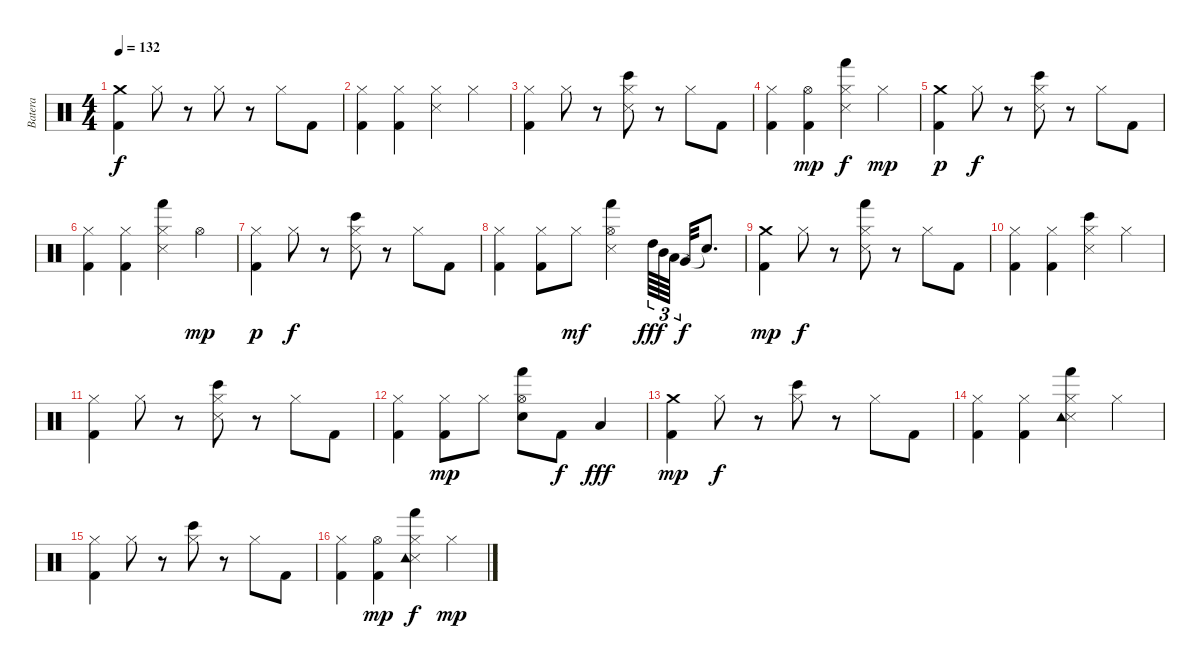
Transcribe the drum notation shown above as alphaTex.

\track ("Batera" "Batera") {instrument percussion}
\staff {score}
\articulation defaults
\ts (4 4)
\tempo 132
\clef neutral
\ks c
("Crash medium (hit)" "Kick (hit) 2").4{dy f} "Hi-Hat (closed)".8 r.8 "Hi-Hat (closed)".8 r.8 "Hi-Hat (closed)".8 "Kick (hit) 2".8 |
("Hi-Hat (closed)" "Kick (hit) 2").4 ("Hi-Hat (closed)" "Kick (hit) 2").4 ("Hi-Hat (closed)" "Snare (side stick) 3").4 "Hi-Hat (closed)".4 |
("Hi-Hat (closed)" "Kick (hit) 2").4 "Hi-Hat (closed)".8 r.8 ("Hi-Hat (closed)" "Bongo High (hit)" "Snare (side stick) 3").8 r.8 "Hi-Hat (closed)".8 "Kick (hit) 2".8 |
("Hi-Hat (closed)" "Kick (hit) 2").4 ("Hi-Hat (open)" "Kick (hit) 2").4{dy mp} ("Hi-Hat (closed)" "Hand (hit)" "Snare (side stick) 3").4{dy f} "Hi-Hat (closed)".4{dy mp} |
("Crash medium (hit)" "Kick (hit) 2").4{dy p} "Hi-Hat (closed)".8{dy f} r.8 ("Hi-Hat (closed)" "Bongo High (hit)" "Snare (side stick) 3").8 r.8 "Hi-Hat (closed)".8 "Kick (hit) 2".8 |
("Hi-Hat (closed)" "Kick (hit) 2").4 ("Hi-Hat (closed)" "Kick (hit) 2").4 ("Hi-Hat (closed)" "Hand (hit)" "Snare (side stick) 3").4 "Hi-Hat (open)".4{dy mp} |
("Hi-Hat (closed)" "Kick (hit) 2").4{dy p} "Hi-Hat (closed)".8{dy f} r.8 ("Hi-Hat (closed)" "Bongo High (hit)" "Snare (side stick) 3").8 r.8 "Hi-Hat (closed)".8 "Kick (hit) 2".8 |
("Hi-Hat (closed)" "Kick (hit) 2").4 ("Hi-Hat (closed)" "Kick (hit) 2").8 "Hi-Hat (closed)".8{dy mf} ("Hi-Hat (open)" "Hand (hit)" "Snare (side stick) 3").4 "High Tom (hit)".64{tu (3 2) dy fff} "Mid Tom (hit)".64{tu (3 2)} "Low Tom (hit)".64{tu (3 2)} "Very Low Tom (hit)"{t}.32{dy f} "Snare (hit)"{t}.8{d} |
("Crash medium (hit)" "Kick (hit) 2").4{dy mp} "Hi-Hat (closed)".8{dy f} r.8 ("Hi-Hat (closed)" "Hand (hit)" "Snare (side stick) 3").8 r.8 "Hi-Hat (closed)".8 "Kick (hit) 2".8 |
("Hi-Hat (closed)" "Kick (hit) 2").4 ("Hi-Hat (closed)" "Kick (hit) 2").4 ("Hi-Hat (closed)" "Snare (side stick) 3" "Bongo High (hit)").4 "Hi-Hat (closed)".4 |
("Hi-Hat (closed)" "Kick (hit) 2").4 "Hi-Hat (closed)".8 r.8 ("Hi-Hat (closed)" "Bongo High (hit)" "Snare (side stick) 3").8 r.8 "Hi-Hat (closed)".8 "Kick (hit) 2".8 |
("Hi-Hat (closed)" "Kick (hit) 2").4 ("Hi-Hat (closed)" "Kick (hit) 2").8{dy mp} "Hi-Hat (closed)".8 ("Hi-Hat (open)" "Electric Snare (hit)" "Hand (hit)").8 "Kick (hit) 2".8{dy f} "Low Tom (hit)".4{dy fff} |
("Crash medium (hit)" "Kick (hit) 2").4{dy mp} "Hi-Hat (closed)".8{dy f} r.8 ("Hi-Hat (closed)" "Bongo High (hit)").8 r.8 "Hi-Hat (closed)".8 "Kick (hit) 2".8 |
("Hi-Hat (closed)" "Kick (hit) 2").4 ("Hi-Hat (closed)" "Kick (hit) 2").4 ("Hi-Hat (closed)" "Snare (side stick) 3" "Hand (hit)" "Tambourine (hit)").4 "Hi-Hat (closed)".4 |
("Hi-Hat (closed)" "Kick (hit) 2").4 "Hi-Hat (closed)".8 r.8 ("Hi-Hat (closed)" "Bongo High (hit)").8 r.8 "Hi-Hat (closed)".8 "Kick (hit) 2".8 |
("Hi-Hat (closed)" "Kick (hit) 2").4 ("Hi-Hat (open)" "Kick (hit) 2").4{dy mp} ("Hi-Hat (closed)" "Hand (hit)" "Snare (side stick) 3" "Tambourine (hit)").4{dy f} "Hi-Hat (closed)".4{dy mp}
